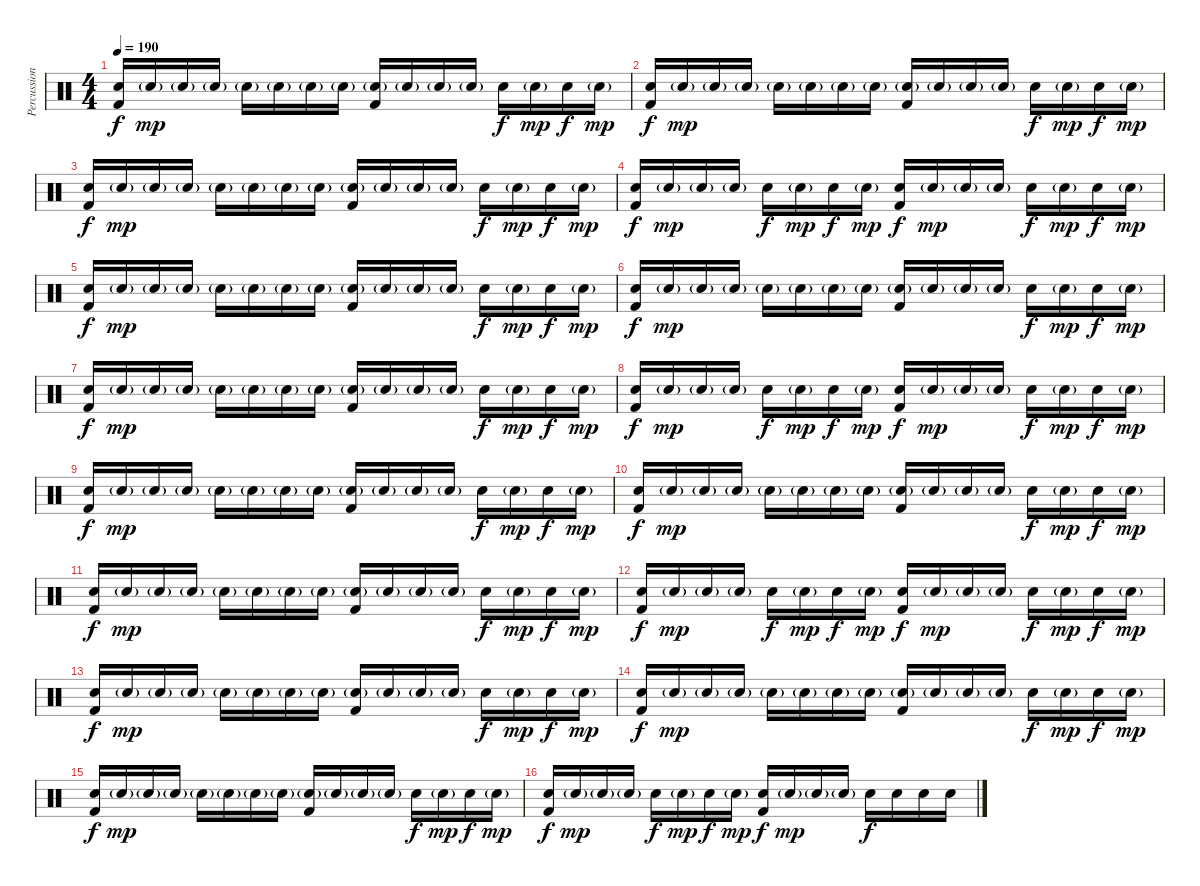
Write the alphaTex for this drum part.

\track ("Percussion" "Percussion") {instrument percussion}
\staff {score}
\articulation defaults
\ts (4 4)
\tempo 190
\clef neutral
\ks c
("Electric Snare (hit)" "Kick (hit) 2").16{dy f} "Electric Snare (hit)"{g}.16{dy mp} "Electric Snare (hit)"{g}.16 "Electric Snare (hit)"{g}.16 "Electric Snare (hit)"{g}.16 "Electric Snare (hit)"{g}.16 "Electric Snare (hit)"{g}.16 "Electric Snare (hit)"{g}.16 ("Electric Snare (hit)"{g} "Kick (hit) 2").16 "Electric Snare (hit)"{g}.16 "Electric Snare (hit)"{g}.16 "Electric Snare (hit)"{g}.16 "Electric Snare (hit)".16{dy f} "Electric Snare (hit)"{g}.16{dy mp} "Electric Snare (hit)".16{dy f} "Electric Snare (hit)"{g}.16{dy mp} |
("Electric Snare (hit)" "Kick (hit) 2").16{dy f} "Electric Snare (hit)"{g}.16{dy mp} "Electric Snare (hit)"{g}.16 "Electric Snare (hit)"{g}.16 "Electric Snare (hit)"{g}.16 "Electric Snare (hit)"{g}.16 "Electric Snare (hit)"{g}.16 "Electric Snare (hit)"{g}.16 ("Electric Snare (hit)"{g} "Kick (hit) 2").16 "Electric Snare (hit)"{g}.16 "Electric Snare (hit)"{g}.16 "Electric Snare (hit)"{g}.16 "Electric Snare (hit)".16{dy f} "Electric Snare (hit)"{g}.16{dy mp} "Electric Snare (hit)".16{dy f} "Electric Snare (hit)"{g}.16{dy mp} |
("Electric Snare (hit)" "Kick (hit) 2").16{dy f} "Electric Snare (hit)"{g}.16{dy mp} "Electric Snare (hit)"{g}.16 "Electric Snare (hit)"{g}.16 "Electric Snare (hit)"{g}.16 "Electric Snare (hit)"{g}.16 "Electric Snare (hit)"{g}.16 "Electric Snare (hit)"{g}.16 ("Electric Snare (hit)"{g} "Kick (hit) 2").16 "Electric Snare (hit)"{g}.16 "Electric Snare (hit)"{g}.16 "Electric Snare (hit)"{g}.16 "Electric Snare (hit)".16{dy f} "Electric Snare (hit)"{g}.16{dy mp} "Electric Snare (hit)".16{dy f} "Electric Snare (hit)"{g}.16{dy mp} |
("Electric Snare (hit)" "Kick (hit) 2").16{dy f} "Electric Snare (hit)"{g}.16{dy mp} "Electric Snare (hit)"{g}.16 "Electric Snare (hit)"{g}.16 "Electric Snare (hit)".16{dy f} "Electric Snare (hit)"{g}.16{dy mp} "Electric Snare (hit)".16{dy f} "Electric Snare (hit)"{g}.16{dy mp} ("Electric Snare (hit)" "Kick (hit) 2").16{dy f} "Electric Snare (hit)"{g}.16{dy mp} "Electric Snare (hit)"{g}.16 "Electric Snare (hit)"{g}.16 "Electric Snare (hit)".16{dy f} "Electric Snare (hit)"{g}.16{dy mp} "Electric Snare (hit)".16{dy f} "Electric Snare (hit)"{g}.16{dy mp} |
("Electric Snare (hit)" "Kick (hit) 2").16{dy f} "Electric Snare (hit)"{g}.16{dy mp} "Electric Snare (hit)"{g}.16 "Electric Snare (hit)"{g}.16 "Electric Snare (hit)"{g}.16 "Electric Snare (hit)"{g}.16 "Electric Snare (hit)"{g}.16 "Electric Snare (hit)"{g}.16 ("Electric Snare (hit)"{g} "Kick (hit) 2").16 "Electric Snare (hit)"{g}.16 "Electric Snare (hit)"{g}.16 "Electric Snare (hit)"{g}.16 "Electric Snare (hit)".16{dy f} "Electric Snare (hit)"{g}.16{dy mp} "Electric Snare (hit)".16{dy f} "Electric Snare (hit)"{g}.16{dy mp} |
("Electric Snare (hit)" "Kick (hit) 2").16{dy f} "Electric Snare (hit)"{g}.16{dy mp} "Electric Snare (hit)"{g}.16 "Electric Snare (hit)"{g}.16 "Electric Snare (hit)"{g}.16 "Electric Snare (hit)"{g}.16 "Electric Snare (hit)"{g}.16 "Electric Snare (hit)"{g}.16 ("Electric Snare (hit)"{g} "Kick (hit) 2").16 "Electric Snare (hit)"{g}.16 "Electric Snare (hit)"{g}.16 "Electric Snare (hit)"{g}.16 "Electric Snare (hit)".16{dy f} "Electric Snare (hit)"{g}.16{dy mp} "Electric Snare (hit)".16{dy f} "Electric Snare (hit)"{g}.16{dy mp} |
("Electric Snare (hit)" "Kick (hit) 2").16{dy f} "Electric Snare (hit)"{g}.16{dy mp} "Electric Snare (hit)"{g}.16 "Electric Snare (hit)"{g}.16 "Electric Snare (hit)"{g}.16 "Electric Snare (hit)"{g}.16 "Electric Snare (hit)"{g}.16 "Electric Snare (hit)"{g}.16 ("Electric Snare (hit)"{g} "Kick (hit) 2").16 "Electric Snare (hit)"{g}.16 "Electric Snare (hit)"{g}.16 "Electric Snare (hit)"{g}.16 "Electric Snare (hit)".16{dy f} "Electric Snare (hit)"{g}.16{dy mp} "Electric Snare (hit)".16{dy f} "Electric Snare (hit)"{g}.16{dy mp} |
("Electric Snare (hit)" "Kick (hit) 2").16{dy f} "Electric Snare (hit)"{g}.16{dy mp} "Electric Snare (hit)"{g}.16 "Electric Snare (hit)"{g}.16 "Electric Snare (hit)".16{dy f} "Electric Snare (hit)"{g}.16{dy mp} "Electric Snare (hit)".16{dy f} "Electric Snare (hit)"{g}.16{dy mp} ("Electric Snare (hit)" "Kick (hit) 2").16{dy f} "Electric Snare (hit)"{g}.16{dy mp} "Electric Snare (hit)"{g}.16 "Electric Snare (hit)"{g}.16 "Electric Snare (hit)".16{dy f} "Electric Snare (hit)"{g}.16{dy mp} "Electric Snare (hit)".16{dy f} "Electric Snare (hit)"{g}.16{dy mp} |
("Electric Snare (hit)" "Kick (hit) 2").16{dy f} "Electric Snare (hit)"{g}.16{dy mp} "Electric Snare (hit)"{g}.16 "Electric Snare (hit)"{g}.16 "Electric Snare (hit)"{g}.16 "Electric Snare (hit)"{g}.16 "Electric Snare (hit)"{g}.16 "Electric Snare (hit)"{g}.16 ("Electric Snare (hit)"{g} "Kick (hit) 2").16 "Electric Snare (hit)"{g}.16 "Electric Snare (hit)"{g}.16 "Electric Snare (hit)"{g}.16 "Electric Snare (hit)".16{dy f} "Electric Snare (hit)"{g}.16{dy mp} "Electric Snare (hit)".16{dy f} "Electric Snare (hit)"{g}.16{dy mp} |
("Electric Snare (hit)" "Kick (hit) 2").16{dy f} "Electric Snare (hit)"{g}.16{dy mp} "Electric Snare (hit)"{g}.16 "Electric Snare (hit)"{g}.16 "Electric Snare (hit)"{g}.16 "Electric Snare (hit)"{g}.16 "Electric Snare (hit)"{g}.16 "Electric Snare (hit)"{g}.16 ("Electric Snare (hit)"{g} "Kick (hit) 2").16 "Electric Snare (hit)"{g}.16 "Electric Snare (hit)"{g}.16 "Electric Snare (hit)"{g}.16 "Electric Snare (hit)".16{dy f} "Electric Snare (hit)"{g}.16{dy mp} "Electric Snare (hit)".16{dy f} "Electric Snare (hit)"{g}.16{dy mp} |
("Electric Snare (hit)" "Kick (hit) 2").16{dy f} "Electric Snare (hit)"{g}.16{dy mp} "Electric Snare (hit)"{g}.16 "Electric Snare (hit)"{g}.16 "Electric Snare (hit)"{g}.16 "Electric Snare (hit)"{g}.16 "Electric Snare (hit)"{g}.16 "Electric Snare (hit)"{g}.16 ("Electric Snare (hit)"{g} "Kick (hit) 2").16 "Electric Snare (hit)"{g}.16 "Electric Snare (hit)"{g}.16 "Electric Snare (hit)"{g}.16 "Electric Snare (hit)".16{dy f} "Electric Snare (hit)"{g}.16{dy mp} "Electric Snare (hit)".16{dy f} "Electric Snare (hit)"{g}.16{dy mp} |
("Electric Snare (hit)" "Kick (hit) 2").16{dy f} "Electric Snare (hit)"{g}.16{dy mp} "Electric Snare (hit)"{g}.16 "Electric Snare (hit)"{g}.16 "Electric Snare (hit)".16{dy f} "Electric Snare (hit)"{g}.16{dy mp} "Electric Snare (hit)".16{dy f} "Electric Snare (hit)"{g}.16{dy mp} ("Electric Snare (hit)" "Kick (hit) 2").16{dy f} "Electric Snare (hit)"{g}.16{dy mp} "Electric Snare (hit)"{g}.16 "Electric Snare (hit)"{g}.16 "Electric Snare (hit)".16{dy f} "Electric Snare (hit)"{g}.16{dy mp} "Electric Snare (hit)".16{dy f} "Electric Snare (hit)"{g}.16{dy mp} |
("Electric Snare (hit)" "Kick (hit) 2").16{dy f} "Electric Snare (hit)"{g}.16{dy mp} "Electric Snare (hit)"{g}.16 "Electric Snare (hit)"{g}.16 "Electric Snare (hit)"{g}.16 "Electric Snare (hit)"{g}.16 "Electric Snare (hit)"{g}.16 "Electric Snare (hit)"{g}.16 ("Electric Snare (hit)"{g} "Kick (hit) 2").16 "Electric Snare (hit)"{g}.16 "Electric Snare (hit)"{g}.16 "Electric Snare (hit)"{g}.16 "Electric Snare (hit)".16{dy f} "Electric Snare (hit)"{g}.16{dy mp} "Electric Snare (hit)".16{dy f} "Electric Snare (hit)"{g}.16{dy mp} |
("Electric Snare (hit)" "Kick (hit) 2").16{dy f} "Electric Snare (hit)"{g}.16{dy mp} "Electric Snare (hit)"{g}.16 "Electric Snare (hit)"{g}.16 "Electric Snare (hit)"{g}.16 "Electric Snare (hit)"{g}.16 "Electric Snare (hit)"{g}.16 "Electric Snare (hit)"{g}.16 ("Electric Snare (hit)"{g} "Kick (hit) 2").16 "Electric Snare (hit)"{g}.16 "Electric Snare (hit)"{g}.16 "Electric Snare (hit)"{g}.16 "Electric Snare (hit)".16{dy f} "Electric Snare (hit)"{g}.16{dy mp} "Electric Snare (hit)".16{dy f} "Electric Snare (hit)"{g}.16{dy mp} |
("Electric Snare (hit)" "Kick (hit) 2").16{dy f} "Electric Snare (hit)"{g}.16{dy mp} "Electric Snare (hit)"{g}.16 "Electric Snare (hit)"{g}.16 "Electric Snare (hit)"{g}.16 "Electric Snare (hit)"{g}.16 "Electric Snare (hit)"{g}.16 "Electric Snare (hit)"{g}.16 ("Electric Snare (hit)"{g} "Kick (hit) 2").16 "Electric Snare (hit)"{g}.16 "Electric Snare (hit)"{g}.16 "Electric Snare (hit)"{g}.16 "Electric Snare (hit)".16{dy f} "Electric Snare (hit)"{g}.16{dy mp} "Electric Snare (hit)".16{dy f} "Electric Snare (hit)"{g}.16{dy mp} |
("Electric Snare (hit)" "Kick (hit) 2").16{dy f} "Electric Snare (hit)"{g}.16{dy mp} "Electric Snare (hit)"{g}.16 "Electric Snare (hit)"{g}.16 "Electric Snare (hit)".16{dy f} "Electric Snare (hit)"{g}.16{dy mp} "Electric Snare (hit)".16{dy f} "Electric Snare (hit)"{g}.16{dy mp} ("Electric Snare (hit)" "Kick (hit) 2").16{dy f} "Electric Snare (hit)"{g}.16{dy mp} "Electric Snare (hit)"{g}.16 "Electric Snare (hit)"{g}.16 "Electric Snare (hit)".16{dy f} "Electric Snare (hit)".16 "Electric Snare (hit)".16 "Electric Snare (hit)".16
